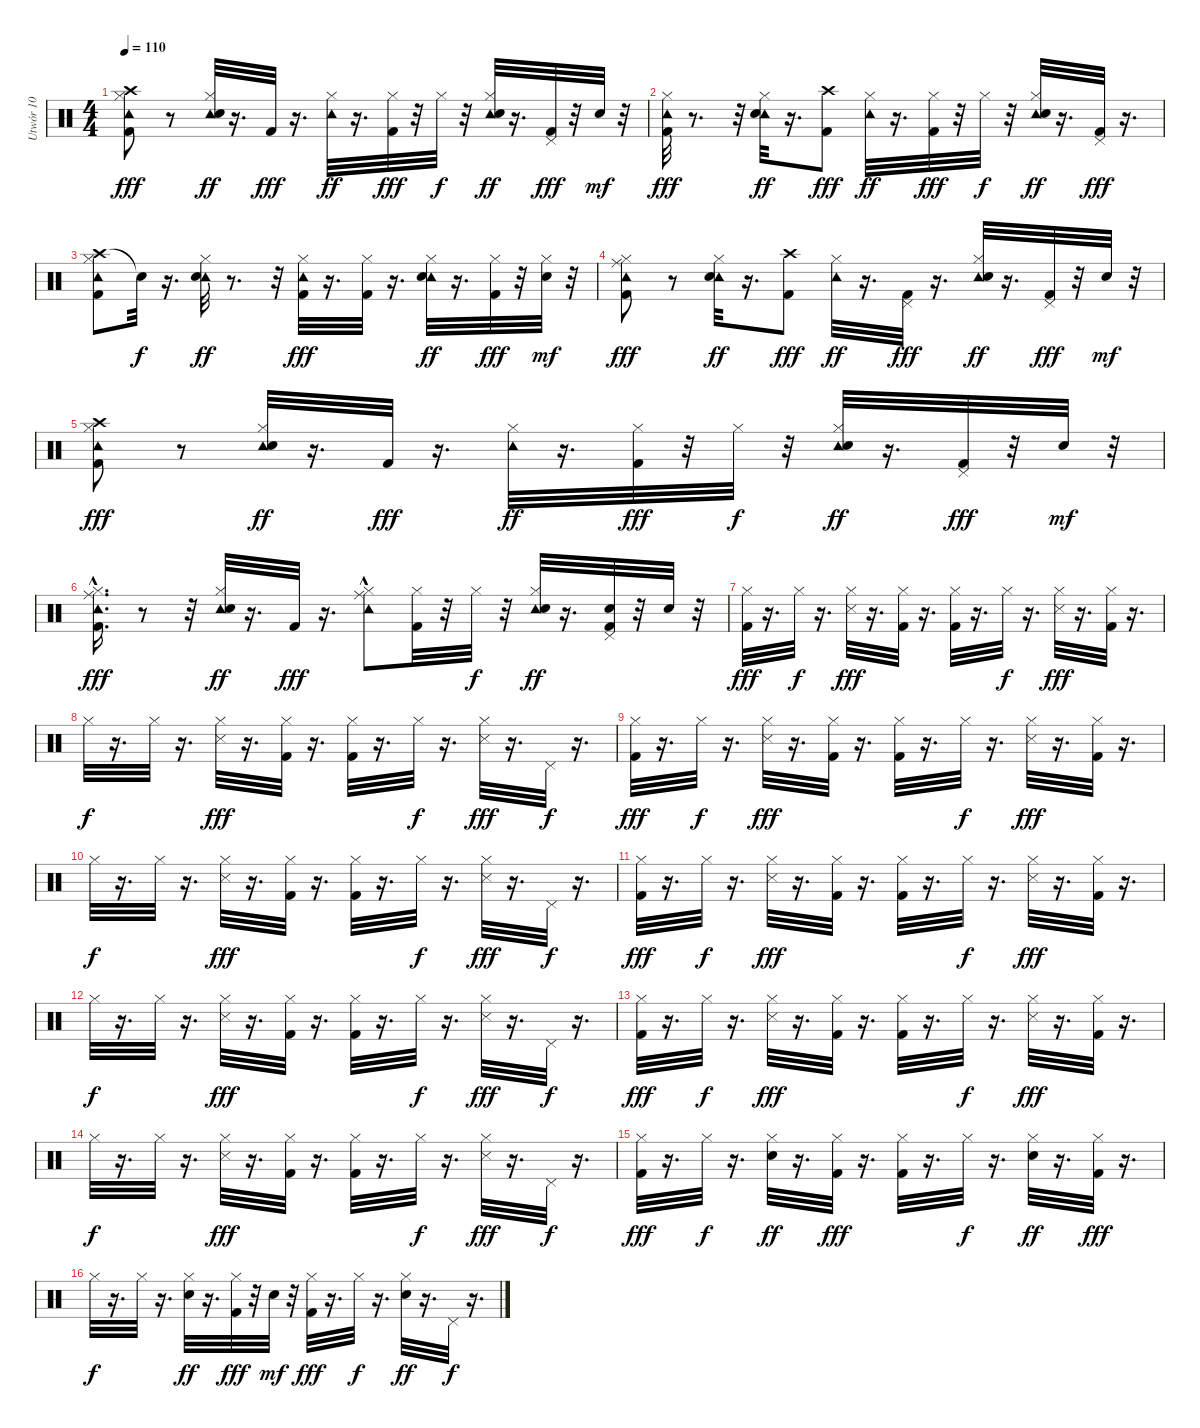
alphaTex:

\track ("Utwór 10" "Utwór 10") {instrument percussion}
\staff {score}
\articulation defaults
\ts (4 4)
\tempo 110
\clef neutral
\ks c
("Crash high (hit)" "Tambourine (hit)" "Kick (hit) 2" "Hi-Hat (closed)").8{dy fff} r.8 ("Tambourine (hit)" "Snare (hit) 2" "Hi-Hat (closed)").32{dy ff} r.16{d} "Kick (hit) 2".32{dy fff} r.16{d} ("Tambourine (hit)" "Hi-Hat (closed)").32{dy ff} r.16{d} ("Kick (hit) 2" "Hi-Hat (closed)").32{dy fff} r.32 "Hi-Hat (closed)".32{dy f} r.32 ("Tambourine (hit)" "Snare (hit) 2" "Hi-Hat (closed)").32{dy ff} r.16{d} ("Kick (hit) 2" "Pedal Hi-Hat (hit)").32{dy fff} r.32 "Snare (hit) 2".32{dy mf} r.32 |
("Tambourine (hit)" "Kick (hit) 2" "Hi-Hat (closed)").32{dy fff} r.8{d} r.32 ("Tambourine (hit)" "Snare (hit) 2" "Hi-Hat (closed)").32{dy ff} r.16{d} ("Crash high (hit)" "Kick (hit) 2").8{dy fff} ("Tambourine (hit)" "Hi-Hat (closed)").32{dy ff} r.16{d} ("Kick (hit) 2" "Hi-Hat (closed)").32{dy fff} r.32 "Hi-Hat (closed)".32{dy f} r.32 ("Tambourine (hit)" "Snare (hit) 2" "Hi-Hat (closed)").32{dy ff} r.16{d} ("Kick (hit) 2" "Pedal Hi-Hat (hit)").32{dy fff} r.16{d} |
("Crash high (hit)" "Tambourine (hit)" "Kick (hit) 2" "Hi-Hat (closed)").8 "Snare (hit)"{t}.32{dy f} r.16{d} ("Tambourine (hit)" "Snare (hit) 2" "Hi-Hat (closed)").32{dy ff} r.8{d} r.32 ("Tambourine (hit)" "Kick (hit) 2" "Hi-Hat (closed)").32{dy fff} r.16{d} ("Kick (hit) 2" "Hi-Hat (closed)").32 r.16{d} ("Tambourine (hit)" "Snare (hit) 2" "Hi-Hat (closed)").32{dy ff} r.16{d} ("Kick (hit) 2" "Hi-Hat (closed)").32{dy fff} r.32 ("Snare (hit) 2" "Hi-Hat (closed)").32{dy mf} r.32 |
("Ride (middle)" "Tambourine (hit)" "Kick (hit) 2" "Hi-Hat (closed)").8{dy fff} r.8 ("Tambourine (hit)" "Snare (hit) 2" "Hi-Hat (closed)").32{dy ff} r.16{d} ("Crash high (hit)" "Kick (hit) 2").8{dy fff} ("Tambourine (hit)" "Hi-Hat (closed)").32{dy ff} r.16{d} ("Kick (hit) 2" "Pedal Hi-Hat (hit)").32{dy fff} r.16{d} ("Tambourine (hit)" "Snare (hit) 2" "Hi-Hat (closed)").32{dy ff} r.16{d} ("Kick (hit) 2" "Pedal Hi-Hat (hit)").32{dy fff} r.32 "Snare (hit) 2".32{dy mf} r.32 |
("Crash high (hit)" "Tambourine (hit)" "Kick (hit) 2" "Hi-Hat (closed)").8{dy fff} r.8 ("Tambourine (hit)" "Snare (hit) 2" "Hi-Hat (closed)").32{dy ff} r.16{d} "Kick (hit) 2".32{dy fff} r.16{d} ("Tambourine (hit)" "Hi-Hat (closed)").32{dy ff} r.16{d} ("Kick (hit) 2" "Hi-Hat (closed)").32{dy fff} r.32 "Hi-Hat (closed)".32{dy f} r.32 ("Tambourine (hit)" "Snare (hit) 2" "Hi-Hat (closed)").32{dy ff} r.16{d} ("Kick (hit) 2" "Pedal Hi-Hat (hit)").32{dy fff} r.32 "Snare (hit) 2".32{dy mf} r.32 |
("Ride (middle)"{hac} "Tambourine (hit)" "Kick (hit) 2" "Hi-Hat (closed)").16{d dy fff} r.8 r.32 ("Tambourine (hit)" "Snare (hit) 2" "Hi-Hat (closed)").32{dy ff} r.16{d} "Kick (hit) 2".32{dy fff} r.16{d} ("Tambourine (hit)" "Ride (middle)"{hac} "Hi-Hat (closed)").8 ("Kick (hit) 2" "Hi-Hat (closed)").32 r.32 "Hi-Hat (closed)".32{dy f} r.32 ("Tambourine (hit)" "Snare (hit) 2" "Hi-Hat (closed)").32{dy ff} r.16{d} ("Kick (hit) 2" "Snare (hit) 2" "Pedal Hi-Hat (hit)").32 r.32 "Snare (hit) 2".32 r.32 |
("Kick (hit) 2" "Hi-Hat (closed)").32{dy fff} r.16{d} "Hi-Hat (closed)".32{dy f} r.16{d} ("Snare (side stick) 3" "Hi-Hat (closed)").32{dy fff} r.16{d} ("Kick (hit) 2" "Hi-Hat (closed)").32 r.16{d} ("Kick (hit) 2" "Hi-Hat (closed)").32 r.16{d} "Hi-Hat (closed)".32{dy f} r.16{d} ("Snare (side stick) 3" "Hi-Hat (closed)").32{dy fff} r.16{d} ("Kick (hit) 2" "Hi-Hat (closed)").32 r.16{d} |
"Hi-Hat (closed)".32{dy f} r.16{d} "Hi-Hat (closed)".32 r.16{d} ("Snare (side stick) 3" "Hi-Hat (closed)").32{dy fff} r.16{d} ("Kick (hit) 2" "Hi-Hat (closed)").32 r.16{d} ("Kick (hit) 2" "Hi-Hat (closed)").32 r.16{d} "Hi-Hat (closed)".32{dy f} r.16{d} ("Snare (side stick) 3" "Hi-Hat (closed)").32{dy fff} r.16{d} "Pedal Hi-Hat (hit)".32{dy f} r.16{d} |
("Kick (hit) 2" "Hi-Hat (closed)").32{dy fff} r.16{d} "Hi-Hat (closed)".32{dy f} r.16{d} ("Snare (side stick) 3" "Hi-Hat (closed)").32{dy fff} r.16{d} ("Kick (hit) 2" "Hi-Hat (closed)").32 r.16{d} ("Kick (hit) 2" "Hi-Hat (closed)").32 r.16{d} "Hi-Hat (closed)".32{dy f} r.16{d} ("Snare (side stick) 3" "Hi-Hat (closed)").32{dy fff} r.16{d} ("Kick (hit) 2" "Hi-Hat (closed)").32 r.16{d} |
"Hi-Hat (closed)".32{dy f} r.16{d} "Hi-Hat (closed)".32 r.16{d} ("Snare (side stick) 3" "Hi-Hat (closed)").32{dy fff} r.16{d} ("Kick (hit) 2" "Hi-Hat (closed)").32 r.16{d} ("Kick (hit) 2" "Hi-Hat (closed)").32 r.16{d} "Hi-Hat (closed)".32{dy f} r.16{d} ("Snare (side stick) 3" "Hi-Hat (closed)").32{dy fff} r.16{d} "Pedal Hi-Hat (hit)".32{dy f} r.16{d} |
("Kick (hit) 2" "Hi-Hat (closed)").32{dy fff} r.16{d} "Hi-Hat (closed)".32{dy f} r.16{d} ("Snare (side stick) 3" "Hi-Hat (closed)").32{dy fff} r.16{d} ("Kick (hit) 2" "Hi-Hat (closed)").32 r.16{d} ("Kick (hit) 2" "Hi-Hat (closed)").32 r.16{d} "Hi-Hat (closed)".32{dy f} r.16{d} ("Snare (side stick) 3" "Hi-Hat (closed)").32{dy fff} r.16{d} ("Kick (hit) 2" "Hi-Hat (closed)").32 r.16{d} |
"Hi-Hat (closed)".32{dy f} r.16{d} "Hi-Hat (closed)".32 r.16{d} ("Snare (side stick) 3" "Hi-Hat (closed)").32{dy fff} r.16{d} ("Kick (hit) 2" "Hi-Hat (closed)").32 r.16{d} ("Kick (hit) 2" "Hi-Hat (closed)").32 r.16{d} "Hi-Hat (closed)".32{dy f} r.16{d} ("Snare (side stick) 3" "Hi-Hat (closed)").32{dy fff} r.16{d} "Pedal Hi-Hat (hit)".32{dy f} r.16{d} |
("Kick (hit) 2" "Hi-Hat (closed)").32{dy fff} r.16{d} "Hi-Hat (closed)".32{dy f} r.16{d} ("Snare (side stick) 3" "Hi-Hat (closed)").32{dy fff} r.16{d} ("Kick (hit) 2" "Hi-Hat (closed)").32 r.16{d} ("Kick (hit) 2" "Hi-Hat (closed)").32 r.16{d} "Hi-Hat (closed)".32{dy f} r.16{d} ("Snare (side stick) 3" "Hi-Hat (closed)").32{dy fff} r.16{d} ("Kick (hit) 2" "Hi-Hat (closed)").32 r.16{d} |
"Hi-Hat (closed)".32{dy f} r.16{d} "Hi-Hat (closed)".32 r.16{d} ("Snare (side stick) 3" "Hi-Hat (closed)").32{dy fff} r.16{d} ("Kick (hit) 2" "Hi-Hat (closed)").32 r.16{d} ("Kick (hit) 2" "Hi-Hat (closed)").32 r.16{d} "Hi-Hat (closed)".32{dy f} r.16{d} ("Snare (side stick) 3" "Hi-Hat (closed)").32{dy fff} r.16{d} "Pedal Hi-Hat (hit)".32{dy f} r.16{d} |
("Kick (hit) 2" "Hi-Hat (closed)").32{dy fff} r.16{d} "Hi-Hat (closed)".32{dy f} r.16{d} ("Snare (hit) 2" "Hi-Hat (closed)").32{dy ff} r.16{d} ("Kick (hit) 2" "Hi-Hat (closed)").32{dy fff} r.16{d} ("Kick (hit) 2" "Hi-Hat (closed)").32 r.16{d} "Hi-Hat (closed)".32{dy f} r.16{d} ("Snare (hit) 2" "Hi-Hat (closed)").32{dy ff} r.16{d} ("Kick (hit) 2" "Hi-Hat (closed)").32{dy fff} r.16{d} |
"Hi-Hat (closed)".32{dy f} r.16{d} "Hi-Hat (closed)".32 r.16{d} ("Snare (hit) 2" "Hi-Hat (closed)").32{dy ff} r.16{d} ("Kick (hit) 2" "Hi-Hat (closed)").32{dy fff} r.32 "Snare (hit) 2".32{dy mf} r.32 ("Kick (hit) 2" "Hi-Hat (closed)").32{dy fff} r.16{d} "Hi-Hat (closed)".32{dy f} r.16{d} ("Snare (hit) 2" "Hi-Hat (closed)").32{dy ff} r.16{d} "Pedal Hi-Hat (hit)".32{dy f} r.16{d}
